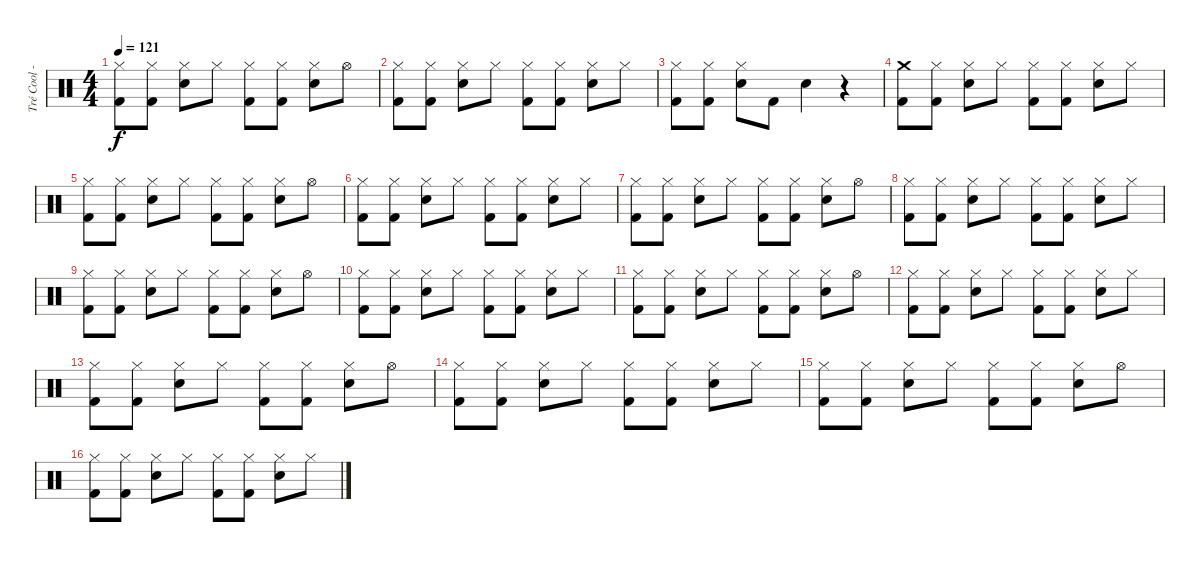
\track ("Tré Cool - Drums" "Tré Cool -") {instrument percussion}
\staff {score}
\articulation defaults
\ts (4 4)
\tempo 121
\clef neutral
\ks c
("Hi-Hat (closed)" "Kick (hit) 2").8{dy f} ("Hi-Hat (closed)" "Kick (hit) 2").8 ("Hi-Hat (closed)" "Electric Snare (hit)").8 "Hi-Hat (closed)".8 ("Hi-Hat (closed)" "Kick (hit) 2").8 ("Hi-Hat (closed)" "Kick (hit) 2").8 ("Hi-Hat (closed)" "Electric Snare (hit)").8 "Hi-Hat (open)".8 |
("Hi-Hat (closed)" "Kick (hit) 2").8 ("Hi-Hat (closed)" "Kick (hit) 2").8 ("Hi-Hat (closed)" "Electric Snare (hit)").8 "Hi-Hat (closed)".8 ("Hi-Hat (closed)" "Kick (hit) 2").8 ("Hi-Hat (closed)" "Kick (hit) 2").8 ("Hi-Hat (closed)" "Electric Snare (hit)").8 "Hi-Hat (closed)".8 |
("Hi-Hat (closed)" "Kick (hit) 2").8 ("Hi-Hat (closed)" "Kick (hit) 2").8 ("Hi-Hat (closed)" "Electric Snare (hit)").8 "Kick (hit) 2".8{volume 16 balance 8} "Electric Snare (hit)".4 r.4 |
("Crash medium (hit)" "Kick (hit) 2").8{volume 14} ("Hi-Hat (closed)" "Kick (hit) 2").8 ("Hi-Hat (closed)" "Electric Snare (hit)").8 "Hi-Hat (closed)".8 ("Hi-Hat (closed)" "Kick (hit) 2").8 ("Hi-Hat (closed)" "Kick (hit) 2").8 ("Hi-Hat (closed)" "Electric Snare (hit)").8 "Hi-Hat (closed)".8 |
("Hi-Hat (closed)" "Kick (hit) 2").8 ("Hi-Hat (closed)" "Kick (hit) 2").8 ("Hi-Hat (closed)" "Electric Snare (hit)").8 "Hi-Hat (closed)".8 ("Hi-Hat (closed)" "Kick (hit) 2").8 ("Hi-Hat (closed)" "Kick (hit) 2").8 ("Hi-Hat (closed)" "Electric Snare (hit)").8 "Hi-Hat (open)".8 |
("Hi-Hat (closed)" "Kick (hit) 2").8 ("Hi-Hat (closed)" "Kick (hit) 2").8 ("Hi-Hat (closed)" "Electric Snare (hit)").8 "Hi-Hat (closed)".8 ("Hi-Hat (closed)" "Kick (hit) 2").8 ("Hi-Hat (closed)" "Kick (hit) 2").8 ("Hi-Hat (closed)" "Electric Snare (hit)").8 "Hi-Hat (closed)".8 |
("Hi-Hat (closed)" "Kick (hit) 2").8 ("Hi-Hat (closed)" "Kick (hit) 2").8 ("Hi-Hat (closed)" "Electric Snare (hit)").8 "Hi-Hat (closed)".8 ("Hi-Hat (closed)" "Kick (hit) 2").8 ("Hi-Hat (closed)" "Kick (hit) 2").8 ("Hi-Hat (closed)" "Electric Snare (hit)").8 "Hi-Hat (open)".8 |
("Hi-Hat (closed)" "Kick (hit) 2").8 ("Hi-Hat (closed)" "Kick (hit) 2").8 ("Hi-Hat (closed)" "Electric Snare (hit)").8 "Hi-Hat (closed)".8 ("Hi-Hat (closed)" "Kick (hit) 2").8 ("Hi-Hat (closed)" "Kick (hit) 2").8 ("Hi-Hat (closed)" "Electric Snare (hit)").8 "Hi-Hat (closed)".8 |
("Hi-Hat (closed)" "Kick (hit) 2").8 ("Hi-Hat (closed)" "Kick (hit) 2").8 ("Hi-Hat (closed)" "Electric Snare (hit)").8 "Hi-Hat (closed)".8 ("Hi-Hat (closed)" "Kick (hit) 2").8 ("Hi-Hat (closed)" "Kick (hit) 2").8 ("Hi-Hat (closed)" "Electric Snare (hit)").8 "Hi-Hat (open)".8 |
("Hi-Hat (closed)" "Kick (hit) 2").8 ("Hi-Hat (closed)" "Kick (hit) 2").8 ("Hi-Hat (closed)" "Electric Snare (hit)").8 "Hi-Hat (closed)".8 ("Hi-Hat (closed)" "Kick (hit) 2").8 ("Hi-Hat (closed)" "Kick (hit) 2").8 ("Hi-Hat (closed)" "Electric Snare (hit)").8 "Hi-Hat (closed)".8 |
("Hi-Hat (closed)" "Kick (hit) 2").8 ("Hi-Hat (closed)" "Kick (hit) 2").8 ("Hi-Hat (closed)" "Electric Snare (hit)").8 "Hi-Hat (closed)".8 ("Hi-Hat (closed)" "Kick (hit) 2").8 ("Hi-Hat (closed)" "Kick (hit) 2").8 ("Hi-Hat (closed)" "Electric Snare (hit)").8 "Hi-Hat (open)".8 |
("Hi-Hat (closed)" "Kick (hit) 2").8 ("Hi-Hat (closed)" "Kick (hit) 2").8 ("Hi-Hat (closed)" "Electric Snare (hit)").8 "Hi-Hat (closed)".8 ("Hi-Hat (closed)" "Kick (hit) 2").8 ("Hi-Hat (closed)" "Kick (hit) 2").8 ("Hi-Hat (closed)" "Electric Snare (hit)").8 "Hi-Hat (closed)".8 |
("Hi-Hat (closed)" "Kick (hit) 2").8 ("Hi-Hat (closed)" "Kick (hit) 2").8 ("Hi-Hat (closed)" "Electric Snare (hit)").8 "Hi-Hat (closed)".8 ("Hi-Hat (closed)" "Kick (hit) 2").8 ("Hi-Hat (closed)" "Kick (hit) 2").8 ("Hi-Hat (closed)" "Electric Snare (hit)").8 "Hi-Hat (open)".8 |
("Hi-Hat (closed)" "Kick (hit) 2").8 ("Hi-Hat (closed)" "Kick (hit) 2").8 ("Hi-Hat (closed)" "Electric Snare (hit)").8 "Hi-Hat (closed)".8 ("Hi-Hat (closed)" "Kick (hit) 2").8 ("Hi-Hat (closed)" "Kick (hit) 2").8 ("Hi-Hat (closed)" "Electric Snare (hit)").8 "Hi-Hat (closed)".8 |
("Hi-Hat (closed)" "Kick (hit) 2").8 ("Hi-Hat (closed)" "Kick (hit) 2").8 ("Hi-Hat (closed)" "Electric Snare (hit)").8 "Hi-Hat (closed)".8 ("Hi-Hat (closed)" "Kick (hit) 2").8 ("Hi-Hat (closed)" "Kick (hit) 2").8 ("Hi-Hat (closed)" "Electric Snare (hit)").8 "Hi-Hat (open)".8 |
("Hi-Hat (closed)" "Kick (hit) 2").8 ("Hi-Hat (closed)" "Kick (hit) 2").8 ("Hi-Hat (closed)" "Electric Snare (hit)").8 "Hi-Hat (closed)".8 ("Hi-Hat (closed)" "Kick (hit) 2").8 ("Hi-Hat (closed)" "Kick (hit) 2").8 ("Hi-Hat (closed)" "Electric Snare (hit)").8 "Hi-Hat (closed)".8
